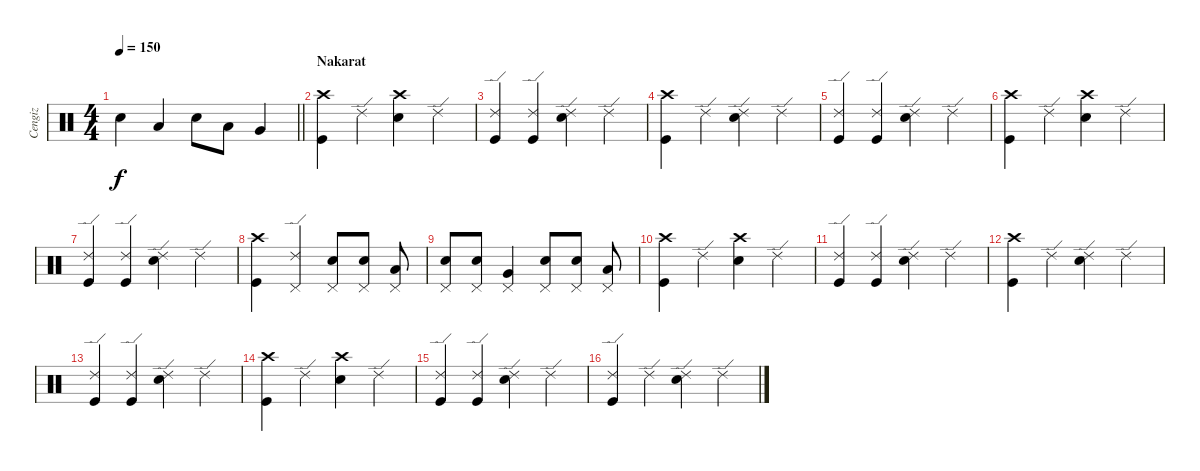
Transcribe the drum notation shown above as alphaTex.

\track ("Cengiz" "Cengiz") {instrument percussion}
\staff {score}
\articulation defaults
\ts (4 4)
\tempo 150
\clef neutral
\barLineRight lightlight
\ks c "Snare (hit) 2".4{dy f} "Low Tom (hit)".4 "Snare (hit) 2".8 "Low Tom (hit)".8 "Very Low Tom (hit)".4
|
\section ("" "Nakarat")
("Crash high (hit)" "Kick (hit)").4 "Ride (edge) 2".4 ("Crash high (hit)" "Snare (hit) 2").4 "Ride (edge) 2".4 |
("Ride (edge) 2" "Kick (hit)").4 ("Ride (edge) 2" "Kick (hit)").4 ("Ride (edge) 2" "Snare (hit) 2").4 "Ride (edge) 2".4 |
("Crash high (hit)" "Kick (hit)").4 "Ride (edge) 2".4 ("Ride (edge) 2" "Snare (hit) 2").4 "Ride (edge) 2".4 |
("Ride (edge) 2" "Kick (hit)").4 ("Ride (edge) 2" "Kick (hit)").4 ("Ride (edge) 2" "Snare (hit) 2").4 "Ride (edge) 2".4 |
("Crash high (hit)" "Kick (hit)").4 "Ride (edge) 2".4 ("Crash high (hit)" "Snare (hit) 2").4 "Ride (edge) 2".4 |
("Ride (edge) 2" "Kick (hit)").4 ("Ride (edge) 2" "Kick (hit)").4 ("Ride (edge) 2" "Snare (hit) 2").4 "Ride (edge) 2".4 |
("Crash high (hit)" "Kick (hit)").4 ("Ride (edge) 2" "Pedal Hi-Hat (hit)").4 ("Snare (hit) 2" "Pedal Hi-Hat (hit)").8 ("Snare (hit) 2" "Pedal Hi-Hat (hit)").8 ("Low Tom (hit)" "Pedal Hi-Hat (hit)").8 |
("Snare (hit) 2" "Pedal Hi-Hat (hit)").8 ("Snare (hit) 2" "Pedal Hi-Hat (hit)").8 ("Very Low Tom (hit)" "Pedal Hi-Hat (hit)").4 ("Snare (hit) 2" "Pedal Hi-Hat (hit)").8 ("Snare (hit) 2" "Pedal Hi-Hat (hit)").8 ("Low Floor Tom (hit)" "Pedal Hi-Hat (hit)").8 |
("Crash high (hit)" "Kick (hit)").4 "Ride (edge) 2".4 ("Crash high (hit)" "Snare (hit) 2").4 "Ride (edge) 2".4 |
("Ride (edge) 2" "Kick (hit)").4 ("Ride (edge) 2" "Kick (hit)").4 ("Ride (edge) 2" "Snare (hit) 2").4 "Ride (edge) 2".4 |
("Crash high (hit)" "Kick (hit)").4 "Ride (edge) 2".4 ("Ride (edge) 2" "Snare (hit) 2").4 "Ride (edge) 2".4 |
("Ride (edge) 2" "Kick (hit)").4 ("Ride (edge) 2" "Kick (hit)").4 ("Ride (edge) 2" "Snare (hit) 2").4 "Ride (edge) 2".4 |
("Crash high (hit)" "Kick (hit)").4 "Ride (edge) 2".4 ("Crash high (hit)" "Snare (hit) 2").4 "Ride (edge) 2".4 |
("Ride (edge) 2" "Kick (hit)").4 ("Ride (edge) 2" "Kick (hit)").4 ("Ride (edge) 2" "Snare (hit) 2").4 "Ride (edge) 2".4 |
("Ride (edge) 2" "Kick (hit)").4 "Ride (edge) 2".4 ("Ride (edge) 2" "Snare (hit) 2").4 "Ride (edge) 2".4
